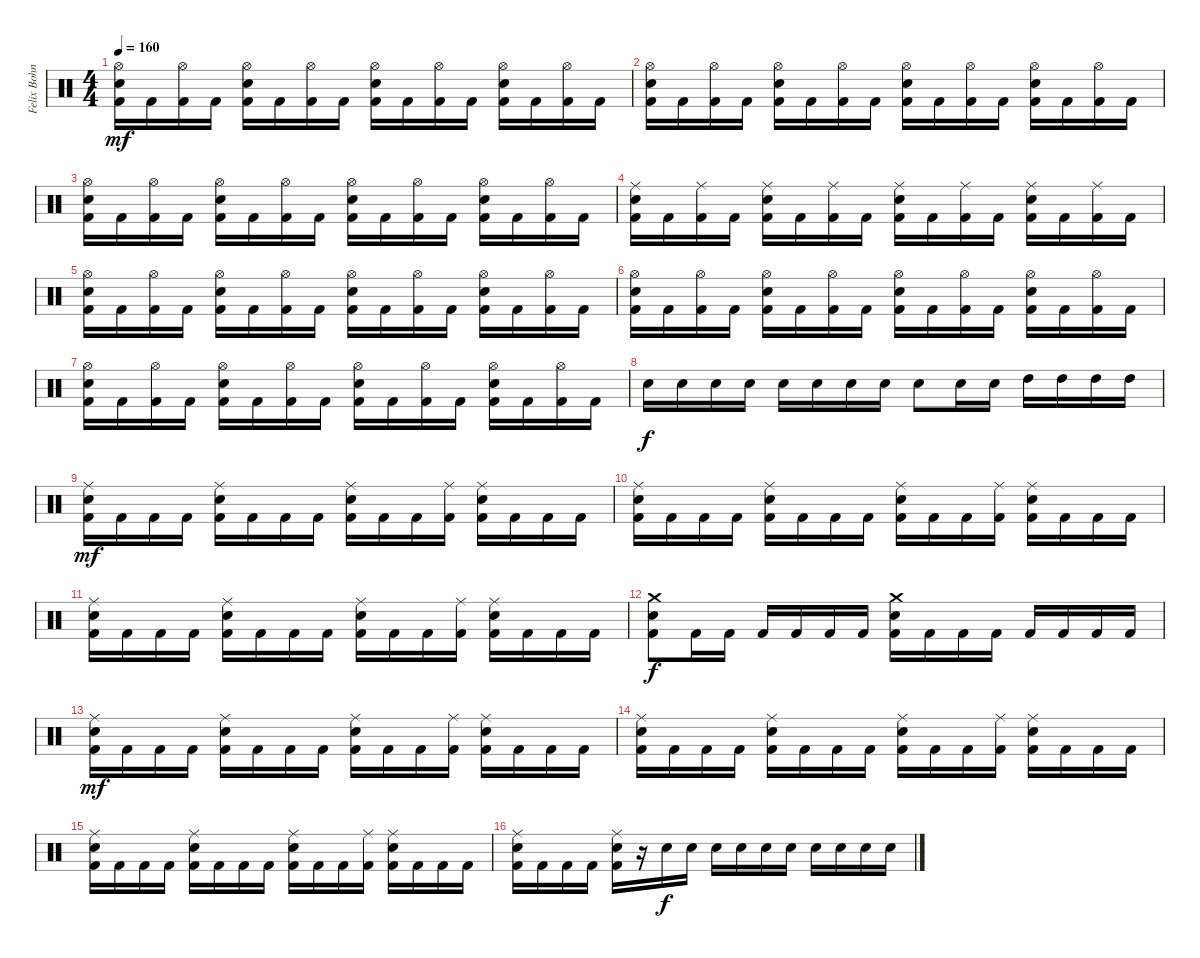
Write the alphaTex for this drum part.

\track ("Felix Bohnke" "Felix Bohn") {instrument percussion}
\staff {score}
\articulation defaults
\ts (4 4)
\tempo 160
\clef neutral
\ks c
("Hi-Hat (open)" "Electric Snare (hit)" "Kick (hit) 2").16{dy mf} "Kick (hit) 2".16 ("Hi-Hat (open)" "Kick (hit) 2").16 "Kick (hit) 2".16 ("Hi-Hat (open)" "Electric Snare (hit)" "Kick (hit) 2").16 "Kick (hit) 2".16 ("Hi-Hat (open)" "Kick (hit) 2").16 "Kick (hit) 2".16 ("Hi-Hat (open)" "Electric Snare (hit)" "Kick (hit) 2").16 "Kick (hit) 2".16 ("Hi-Hat (open)" "Kick (hit) 2").16 "Kick (hit) 2".16 ("Hi-Hat (open)" "Electric Snare (hit)" "Kick (hit) 2").16 "Kick (hit) 2".16 ("Hi-Hat (open)" "Kick (hit) 2").16 "Kick (hit) 2".16 |
("Hi-Hat (open)" "Electric Snare (hit)" "Kick (hit) 2").16 "Kick (hit) 2".16 ("Hi-Hat (open)" "Kick (hit) 2").16 "Kick (hit) 2".16 ("Hi-Hat (open)" "Electric Snare (hit)" "Kick (hit) 2").16 "Kick (hit) 2".16 ("Hi-Hat (open)" "Kick (hit) 2").16 "Kick (hit) 2".16 ("Hi-Hat (open)" "Electric Snare (hit)" "Kick (hit) 2").16 "Kick (hit) 2".16 ("Hi-Hat (open)" "Kick (hit) 2").16 "Kick (hit) 2".16 ("Hi-Hat (open)" "Electric Snare (hit)" "Kick (hit) 2").16 "Kick (hit) 2".16 ("Hi-Hat (open)" "Kick (hit) 2").16 "Kick (hit) 2".16 |
("Hi-Hat (open)" "Electric Snare (hit)" "Kick (hit) 2").16 "Kick (hit) 2".16 ("Hi-Hat (open)" "Kick (hit) 2").16 "Kick (hit) 2".16 ("Hi-Hat (open)" "Electric Snare (hit)" "Kick (hit) 2").16 "Kick (hit) 2".16 ("Hi-Hat (open)" "Kick (hit) 2").16 "Kick (hit) 2".16 ("Hi-Hat (open)" "Electric Snare (hit)" "Kick (hit) 2").16 "Kick (hit) 2".16 ("Hi-Hat (open)" "Kick (hit) 2").16 "Kick (hit) 2".16 ("Hi-Hat (open)" "Electric Snare (hit)" "Kick (hit) 2").16 "Kick (hit) 2".16 ("Hi-Hat (open)" "Kick (hit) 2").16 "Kick (hit) 2".16 |
("Electric Snare (hit)" "Ride (middle)" "Kick (hit) 2").16 "Kick (hit) 2".16 ("Ride (middle)" "Kick (hit) 2").16 "Kick (hit) 2".16 ("Electric Snare (hit)" "Ride (middle)" "Kick (hit) 2").16 "Kick (hit) 2".16 ("Ride (middle)" "Kick (hit) 2").16 "Kick (hit) 2".16 ("Electric Snare (hit)" "Ride (middle)" "Kick (hit) 2").16 "Kick (hit) 2".16 ("Ride (middle)" "Kick (hit) 2").16 "Kick (hit) 2".16 ("Electric Snare (hit)" "Ride (middle)" "Kick (hit) 2").16 "Kick (hit) 2".16 ("Ride (middle)" "Kick (hit) 2").16 "Kick (hit) 2".16 |
("Hi-Hat (open)" "Electric Snare (hit)" "Kick (hit) 2").16 "Kick (hit) 2".16 ("Hi-Hat (open)" "Kick (hit) 2").16 "Kick (hit) 2".16 ("Hi-Hat (open)" "Electric Snare (hit)" "Kick (hit) 2").16 "Kick (hit) 2".16 ("Hi-Hat (open)" "Kick (hit) 2").16 "Kick (hit) 2".16 ("Hi-Hat (open)" "Electric Snare (hit)" "Kick (hit) 2").16 "Kick (hit) 2".16 ("Hi-Hat (open)" "Kick (hit) 2").16 "Kick (hit) 2".16 ("Hi-Hat (open)" "Electric Snare (hit)" "Kick (hit) 2").16 "Kick (hit) 2".16 ("Hi-Hat (open)" "Kick (hit) 2").16 "Kick (hit) 2".16 |
("Hi-Hat (open)" "Electric Snare (hit)" "Kick (hit) 2").16 "Kick (hit) 2".16 ("Hi-Hat (open)" "Kick (hit) 2").16 "Kick (hit) 2".16 ("Hi-Hat (open)" "Electric Snare (hit)" "Kick (hit) 2").16 "Kick (hit) 2".16 ("Hi-Hat (open)" "Kick (hit) 2").16 "Kick (hit) 2".16 ("Hi-Hat (open)" "Electric Snare (hit)" "Kick (hit) 2").16 "Kick (hit) 2".16 ("Hi-Hat (open)" "Kick (hit) 2").16 "Kick (hit) 2".16 ("Hi-Hat (open)" "Electric Snare (hit)" "Kick (hit) 2").16 "Kick (hit) 2".16 ("Hi-Hat (open)" "Kick (hit) 2").16 "Kick (hit) 2".16 |
("Hi-Hat (open)" "Electric Snare (hit)" "Kick (hit) 2").16 "Kick (hit) 2".16 ("Hi-Hat (open)" "Kick (hit) 2").16 "Kick (hit) 2".16 ("Hi-Hat (open)" "Electric Snare (hit)" "Kick (hit) 2").16 "Kick (hit) 2".16 ("Hi-Hat (open)" "Kick (hit) 2").16 "Kick (hit) 2".16 ("Hi-Hat (open)" "Electric Snare (hit)" "Kick (hit) 2").16 "Kick (hit) 2".16 ("Hi-Hat (open)" "Kick (hit) 2").16 "Kick (hit) 2".16 ("Hi-Hat (open)" "Electric Snare (hit)" "Kick (hit) 2").16 "Kick (hit) 2".16 ("Hi-Hat (open)" "Kick (hit) 2").16 "Kick (hit) 2".16 |
"Electric Snare (hit)".16{dy f} "Electric Snare (hit)".16 "Electric Snare (hit)".16 "Electric Snare (hit)".16 "Electric Snare (hit)".16 "Electric Snare (hit)".16 "Electric Snare (hit)".16 "Electric Snare (hit)".16 "Electric Snare (hit)".8 "Electric Snare (hit)".16 "Electric Snare (hit)".16 "High Tom (hit)".16 "High Tom (hit)".16 "High Tom (hit)".16 "High Tom (hit)".16 |
("Ride (middle)" "Electric Snare (hit)" "Kick (hit) 2").16{dy mf} "Kick (hit) 2".16 "Kick (hit) 2".16 "Kick (hit) 2".16 ("Ride (middle)" "Electric Snare (hit)" "Kick (hit) 2").16 "Kick (hit) 2".16 "Kick (hit) 2".16 "Kick (hit) 2".16 ("Ride (middle)" "Electric Snare (hit)" "Kick (hit) 2").16 "Kick (hit) 2".16 "Kick (hit) 2".16 ("Ride (middle)" "Kick (hit) 2").16 ("Ride (middle)" "Electric Snare (hit)" "Kick (hit) 2").16 "Kick (hit) 2".16 "Kick (hit) 2".16 "Kick (hit) 2".16 |
("Ride (middle)" "Electric Snare (hit)" "Kick (hit) 2").16 "Kick (hit) 2".16 "Kick (hit) 2".16 "Kick (hit) 2".16 ("Ride (middle)" "Electric Snare (hit)" "Kick (hit) 2").16 "Kick (hit) 2".16 "Kick (hit) 2".16 "Kick (hit) 2".16 ("Ride (middle)" "Electric Snare (hit)" "Kick (hit) 2").16 "Kick (hit) 2".16 "Kick (hit) 2".16 ("Ride (middle)" "Kick (hit) 2").16 ("Ride (middle)" "Electric Snare (hit)" "Kick (hit) 2").16 "Kick (hit) 2".16 "Kick (hit) 2".16 "Kick (hit) 2".16 |
("Ride (middle)" "Electric Snare (hit)" "Kick (hit) 2").16 "Kick (hit) 2".16 "Kick (hit) 2".16 "Kick (hit) 2".16 ("Ride (middle)" "Electric Snare (hit)" "Kick (hit) 2").16 "Kick (hit) 2".16 "Kick (hit) 2".16 "Kick (hit) 2".16 ("Ride (middle)" "Electric Snare (hit)" "Kick (hit) 2").16 "Kick (hit) 2".16 "Kick (hit) 2".16 ("Ride (middle)" "Kick (hit) 2").16 ("Ride (middle)" "Electric Snare (hit)" "Kick (hit) 2").16 "Kick (hit) 2".16 "Kick (hit) 2".16 "Kick (hit) 2".16 |
("Crash medium (hit)" "Electric Snare (hit)" "Kick (hit) 2").8{dy f} "Kick (hit) 2".16 "Kick (hit) 2".16 "Kick (hit) 2".16 "Kick (hit) 2".16 "Kick (hit) 2".16 "Kick (hit) 2".16 ("Crash medium (hit)" "Electric Snare (hit)" "Kick (hit) 2").16 "Kick (hit) 2".16 "Kick (hit) 2".16 "Kick (hit) 2".16 "Kick (hit) 2".16 "Kick (hit) 2".16 "Kick (hit) 2".16 "Kick (hit) 2".16 |
("Ride (middle)" "Electric Snare (hit)" "Kick (hit) 2").16{dy mf} "Kick (hit) 2".16 "Kick (hit) 2".16 "Kick (hit) 2".16 ("Ride (middle)" "Electric Snare (hit)" "Kick (hit) 2").16 "Kick (hit) 2".16 "Kick (hit) 2".16 "Kick (hit) 2".16 ("Ride (middle)" "Electric Snare (hit)" "Kick (hit) 2").16 "Kick (hit) 2".16 "Kick (hit) 2".16 ("Ride (middle)" "Kick (hit) 2").16 ("Ride (middle)" "Electric Snare (hit)" "Kick (hit) 2").16 "Kick (hit) 2".16 "Kick (hit) 2".16 "Kick (hit) 2".16 |
("Ride (middle)" "Electric Snare (hit)" "Kick (hit) 2").16 "Kick (hit) 2".16 "Kick (hit) 2".16 "Kick (hit) 2".16 ("Ride (middle)" "Electric Snare (hit)" "Kick (hit) 2").16 "Kick (hit) 2".16 "Kick (hit) 2".16 "Kick (hit) 2".16 ("Ride (middle)" "Electric Snare (hit)" "Kick (hit) 2").16 "Kick (hit) 2".16 "Kick (hit) 2".16 ("Ride (middle)" "Kick (hit) 2").16 ("Ride (middle)" "Electric Snare (hit)" "Kick (hit) 2").16 "Kick (hit) 2".16 "Kick (hit) 2".16 "Kick (hit) 2".16 |
("Ride (middle)" "Electric Snare (hit)" "Kick (hit) 2").16 "Kick (hit) 2".16 "Kick (hit) 2".16 "Kick (hit) 2".16 ("Ride (middle)" "Electric Snare (hit)" "Kick (hit) 2").16 "Kick (hit) 2".16 "Kick (hit) 2".16 "Kick (hit) 2".16 ("Ride (middle)" "Electric Snare (hit)" "Kick (hit) 2").16 "Kick (hit) 2".16 "Kick (hit) 2".16 ("Ride (middle)" "Kick (hit) 2").16 ("Ride (middle)" "Electric Snare (hit)" "Kick (hit) 2").16 "Kick (hit) 2".16 "Kick (hit) 2".16 "Kick (hit) 2".16 |
("Ride (middle)" "Electric Snare (hit)" "Kick (hit) 2").16 "Kick (hit) 2".16 "Kick (hit) 2".16 "Kick (hit) 2".16 ("Ride (middle)" "Electric Snare (hit)" "Kick (hit) 2").16 r.16 "Electric Snare (hit)".16{dy f} "Electric Snare (hit)".16 "Electric Snare (hit)".16 "Electric Snare (hit)".16 "Electric Snare (hit)".16 "Electric Snare (hit)".16 "Electric Snare (hit)".16 "Electric Snare (hit)".16 "Electric Snare (hit)".16 "Electric Snare (hit)".16
